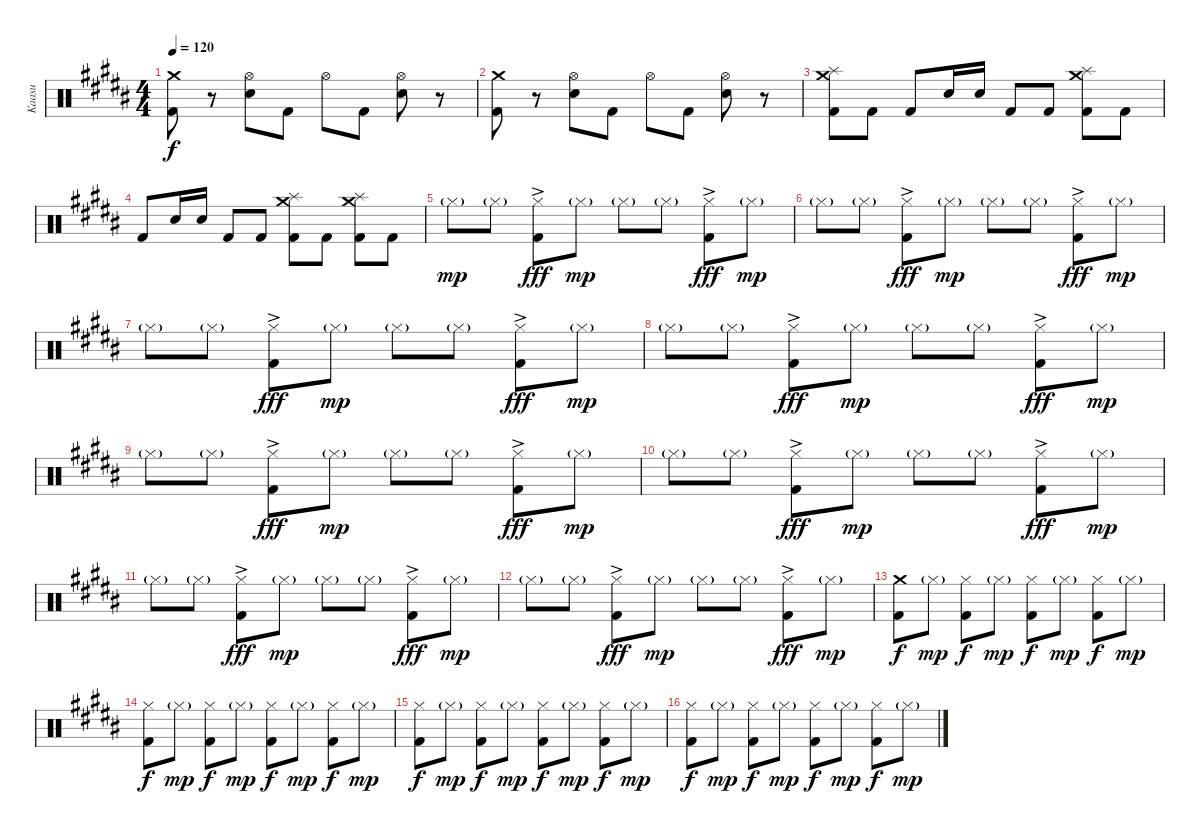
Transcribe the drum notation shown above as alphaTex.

\track ("Kaasu" "Kaasu") {instrument percussion}
\staff {score}
\articulation defaults
\ts (4 4)
\tempo 120
\clef neutral
\ks b
("Crash medium (hit)" "Kick (hit) 2").8{dy f volume 13} r.8 ("Hi-Hat (open)" "Snare (hit) 2").8 "Kick (hit) 2".8 "Hi-Hat (open)".8 "Kick (hit) 2".8 ("Hi-Hat (open)" "Snare (hit) 2").8 r.8 |
("Crash medium (hit)" "Kick (hit) 2").8{volume 13} r.8 ("Hi-Hat (open)" "Snare (hit) 2").8 "Kick (hit) 2".8 "Hi-Hat (open)".8 "Kick (hit) 2".8 ("Hi-Hat (open)" "Snare (hit) 2").8 r.8 |
("Crash medium (hit)" "Splash (hit)" "Kick (hit) 2").8 "Kick (hit) 2".8 "Kick (hit) 2".8 "Snare (hit) 2".16 "Snare (hit) 2".16 "Kick (hit) 2".8 "Kick (hit) 2".8 ("Crash medium (hit)" "Splash (hit)" "Kick (hit) 2").8 "Kick (hit) 2".8 |
"Kick (hit) 2".8 "Snare (hit) 2".16 "Snare (hit) 2".16 "Kick (hit) 2".8 "Kick (hit) 2".8 ("Splash (hit)" "Crash medium (hit)" "Kick (hit) 2").8 "Kick (hit) 2".8 ("Splash (hit)" "Crash medium (hit)" "Kick (hit) 2").8 "Kick (hit) 2".8 |
"Hi-Hat (closed)"{g}.8{dy mp} "Hi-Hat (closed)"{g}.8 ("Hi-Hat (closed)"{ac} "Kick (hit) 2"{ac}).8{dy fff} "Hi-Hat (closed)"{g}.8{dy mp} "Hi-Hat (closed)"{g}.8 "Hi-Hat (closed)"{g}.8 ("Hi-Hat (closed)"{ac} "Kick (hit) 2"{ac}).8{dy fff} "Hi-Hat (closed)"{g}.8{dy mp} |
"Hi-Hat (closed)"{g}.8 "Hi-Hat (closed)"{g}.8 ("Hi-Hat (closed)"{ac} "Kick (hit) 2"{ac}).8{dy fff} "Hi-Hat (closed)"{g}.8{dy mp} "Hi-Hat (closed)"{g}.8 "Hi-Hat (closed)"{g}.8 ("Hi-Hat (closed)"{ac} "Kick (hit) 2"{ac}).8{dy fff} "Hi-Hat (closed)"{g}.8{dy mp} |
"Hi-Hat (closed)"{g}.8 "Hi-Hat (closed)"{g}.8 ("Hi-Hat (closed)"{ac} "Kick (hit) 2"{ac}).8{dy fff} "Hi-Hat (closed)"{g}.8{dy mp} "Hi-Hat (closed)"{g}.8 "Hi-Hat (closed)"{g}.8 ("Hi-Hat (closed)"{ac} "Kick (hit) 2"{ac}).8{dy fff} "Hi-Hat (closed)"{g}.8{dy mp} |
"Hi-Hat (closed)"{g}.8 "Hi-Hat (closed)"{g}.8 ("Hi-Hat (closed)"{ac} "Kick (hit) 2"{ac}).8{dy fff} "Hi-Hat (closed)"{g}.8{dy mp} "Hi-Hat (closed)"{g}.8 "Hi-Hat (closed)"{g}.8 ("Hi-Hat (closed)"{ac} "Kick (hit) 2"{ac}).8{dy fff} "Hi-Hat (closed)"{g}.8{dy mp} |
"Hi-Hat (closed)"{g}.8 "Hi-Hat (closed)"{g}.8 ("Hi-Hat (closed)"{ac} "Kick (hit) 2"{ac}).8{dy fff} "Hi-Hat (closed)"{g}.8{dy mp} "Hi-Hat (closed)"{g}.8 "Hi-Hat (closed)"{g}.8 ("Hi-Hat (closed)"{ac} "Kick (hit) 2"{ac}).8{dy fff} "Hi-Hat (closed)"{g}.8{dy mp} |
"Hi-Hat (closed)"{g}.8 "Hi-Hat (closed)"{g}.8 ("Hi-Hat (closed)"{ac} "Kick (hit) 2"{ac}).8{dy fff} "Hi-Hat (closed)"{g}.8{dy mp} "Hi-Hat (closed)"{g}.8 "Hi-Hat (closed)"{g}.8 ("Hi-Hat (closed)"{ac} "Kick (hit) 2"{ac}).8{dy fff} "Hi-Hat (closed)"{g}.8{dy mp} |
"Hi-Hat (closed)"{g}.8 "Hi-Hat (closed)"{g}.8 ("Hi-Hat (closed)"{ac} "Kick (hit) 2"{ac}).8{dy fff} "Hi-Hat (closed)"{g}.8{dy mp} "Hi-Hat (closed)"{g}.8 "Hi-Hat (closed)"{g}.8 ("Hi-Hat (closed)"{ac} "Kick (hit) 2"{ac}).8{dy fff} "Hi-Hat (closed)"{g}.8{dy mp} |
"Hi-Hat (closed)"{g}.8 "Hi-Hat (closed)"{g}.8 ("Hi-Hat (closed)"{ac} "Kick (hit) 2"{ac}).8{dy fff} "Hi-Hat (closed)"{g}.8{dy mp} "Hi-Hat (closed)"{g}.8 "Hi-Hat (closed)"{g}.8 ("Hi-Hat (closed)"{ac} "Kick (hit) 2"{ac}).8{dy fff} "Hi-Hat (closed)"{g}.8{dy mp} |
("Crash medium (hit)" "Kick (hit) 2").8{dy f} "Hi-Hat (closed)"{g}.8{dy mp} ("Hi-Hat (closed)" "Kick (hit) 2").8{dy f} "Hi-Hat (closed)"{g}.8{dy mp} ("Hi-Hat (closed)" "Kick (hit) 2").8{dy f} "Hi-Hat (closed)"{g}.8{dy mp} ("Hi-Hat (closed)" "Kick (hit) 2").8{dy f} "Hi-Hat (closed)"{g}.8{dy mp} |
("Hi-Hat (closed)" "Kick (hit) 2").8{dy f} "Hi-Hat (closed)"{g}.8{dy mp} ("Hi-Hat (closed)" "Kick (hit) 2").8{dy f} "Hi-Hat (closed)"{g}.8{dy mp} ("Hi-Hat (closed)" "Kick (hit) 2").8{dy f} "Hi-Hat (closed)"{g}.8{dy mp} ("Hi-Hat (closed)" "Kick (hit) 2").8{dy f} "Hi-Hat (closed)"{g}.8{dy mp} |
("Hi-Hat (closed)" "Kick (hit) 2").8{dy f} "Hi-Hat (closed)"{g}.8{dy mp} ("Hi-Hat (closed)" "Kick (hit) 2").8{dy f} "Hi-Hat (closed)"{g}.8{dy mp} ("Hi-Hat (closed)" "Kick (hit) 2").8{dy f} "Hi-Hat (closed)"{g}.8{dy mp} ("Hi-Hat (closed)" "Kick (hit) 2").8{dy f} "Hi-Hat (closed)"{g}.8{dy mp} |
("Hi-Hat (closed)" "Kick (hit) 2").8{dy f} "Hi-Hat (closed)"{g}.8{dy mp} ("Hi-Hat (closed)" "Kick (hit) 2").8{dy f} "Hi-Hat (closed)"{g}.8{dy mp} ("Hi-Hat (closed)" "Kick (hit) 2").8{dy f} "Hi-Hat (closed)"{g}.8{dy mp} ("Hi-Hat (closed)" "Kick (hit) 2").8{dy f} "Hi-Hat (closed)"{g}.8{dy mp}
